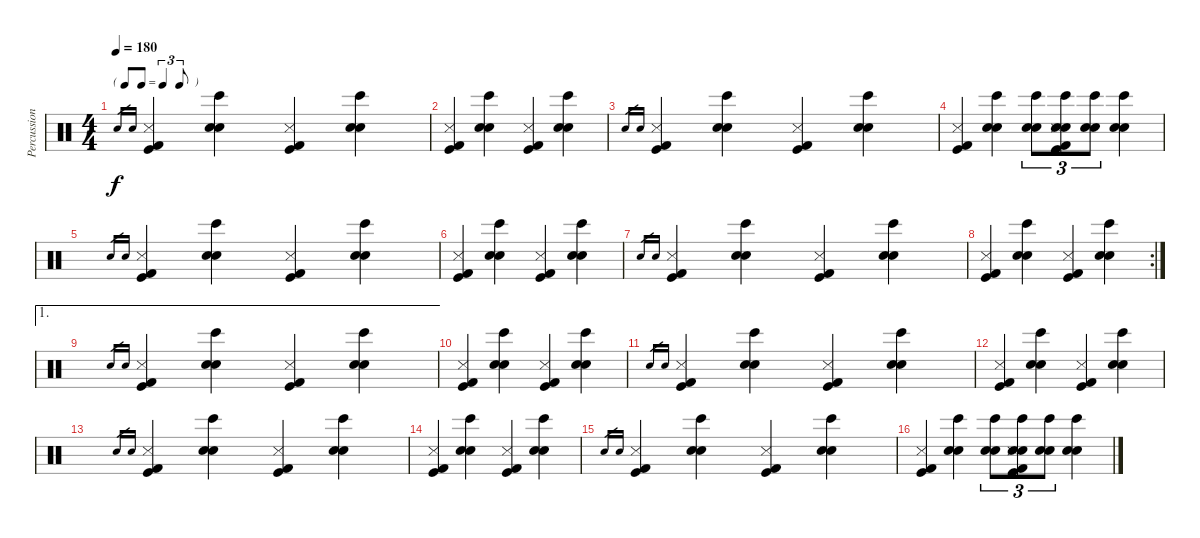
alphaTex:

\track ("Percussion" "Percussion") {instrument percussion}
\staff {score}
\articulation defaults
\ts (4 4)
\tf triplet8th
\tempo 180
\clef neutral
\ks c "Electric Snare (hit)".16{gr dy f} "Snare (hit) 2".16{gr}
("Snare (side stick) 3" "Kick (hit)" "Kick (hit) 2").4 ("Bongo High (hit)" "Electric Snare (hit)" "Snare (hit) 2").4 ("Snare (side stick) 3" "Kick (hit)" "Kick (hit) 2").4 ("Bongo High (hit)" "Electric Snare (hit)" "Snare (hit) 2").4 |
("Snare (side stick) 3" "Kick (hit)" "Kick (hit) 2").4 ("Bongo High (hit)" "Electric Snare (hit)" "Snare (hit) 2").4 ("Snare (side stick) 3" "Kick (hit)" "Kick (hit) 2").4 ("Bongo High (hit)" "Electric Snare (hit)" "Snare (hit) 2").4 |
"Electric Snare (hit)".16{gr} "Snare (hit) 2".16{gr} ("Snare (side stick) 3" "Kick (hit)" "Kick (hit) 2").4 ("Bongo High (hit)" "Electric Snare (hit)" "Snare (hit) 2").4 ("Snare (side stick) 3" "Kick (hit)" "Kick (hit) 2").4 ("Bongo High (hit)" "Electric Snare (hit)" "Snare (hit) 2").4 |
("Snare (side stick) 3" "Kick (hit)" "Kick (hit) 2").4 ("Bongo High (hit)" "Electric Snare (hit)" "Snare (hit) 2").4 ("Bongo High (hit)" "Electric Snare (hit)" "Snare (hit) 2").8{tu (3 2)} ("Bongo High (hit)" "Electric Snare (hit)" "Snare (hit) 2" "Snare (side stick) 3" "Kick (hit)" "Kick (hit) 2").8{tu (3 2)} ("Bongo High (hit)" "Electric Snare (hit)" "Snare (hit) 2").8{tu (3 2)} ("Bongo High (hit)" "Electric Snare (hit)" "Snare (hit) 2").4 |
"Electric Snare (hit)".16{gr} "Snare (hit) 2".16{gr} ("Snare (side stick) 3" "Kick (hit)" "Kick (hit) 2").4 ("Bongo High (hit)" "Electric Snare (hit)" "Snare (hit) 2").4 ("Snare (side stick) 3" "Kick (hit)" "Kick (hit) 2").4 ("Bongo High (hit)" "Electric Snare (hit)" "Snare (hit) 2").4 |
("Snare (side stick) 3" "Kick (hit)" "Kick (hit) 2").4 ("Bongo High (hit)" "Electric Snare (hit)" "Snare (hit) 2").4 ("Snare (side stick) 3" "Kick (hit)" "Kick (hit) 2").4 ("Bongo High (hit)" "Electric Snare (hit)" "Snare (hit) 2").4 |
"Electric Snare (hit)".16{gr} "Snare (hit) 2".16{gr} ("Snare (side stick) 3" "Kick (hit)" "Kick (hit) 2").4 ("Bongo High (hit)" "Electric Snare (hit)" "Snare (hit) 2").4 ("Snare (side stick) 3" "Kick (hit)" "Kick (hit) 2").4 ("Bongo High (hit)" "Electric Snare (hit)" "Snare (hit) 2").4 |
\rc 2
("Snare (side stick) 3" "Kick (hit)" "Kick (hit) 2").4 ("Bongo High (hit)" "Electric Snare (hit)" "Snare (hit) 2").4 ("Snare (side stick) 3" "Kick (hit)" "Kick (hit) 2").4 ("Bongo High (hit)" "Electric Snare (hit)" "Snare (hit) 2").4 |
\ae 1 "Electric Snare (hit)".16{gr} "Snare (hit) 2".16{gr}
("Snare (side stick) 3" "Kick (hit)" "Kick (hit) 2").4 ("Bongo High (hit)" "Electric Snare (hit)" "Snare (hit) 2").4 ("Snare (side stick) 3" "Kick (hit)" "Kick (hit) 2").4 ("Bongo High (hit)" "Electric Snare (hit)" "Snare (hit) 2").4 |
("Snare (side stick) 3" "Kick (hit)" "Kick (hit) 2").4 ("Bongo High (hit)" "Electric Snare (hit)" "Snare (hit) 2").4 ("Snare (side stick) 3" "Kick (hit)" "Kick (hit) 2").4 ("Bongo High (hit)" "Electric Snare (hit)" "Snare (hit) 2").4 |
"Electric Snare (hit)".16{gr} "Snare (hit) 2".16{gr} ("Snare (side stick) 3" "Kick (hit)" "Kick (hit) 2").4 ("Bongo High (hit)" "Electric Snare (hit)" "Snare (hit) 2").4 ("Snare (side stick) 3" "Kick (hit)" "Kick (hit) 2").4 ("Bongo High (hit)" "Electric Snare (hit)" "Snare (hit) 2").4 |
("Snare (side stick) 3" "Kick (hit)" "Kick (hit) 2").4 ("Bongo High (hit)" "Electric Snare (hit)" "Snare (hit) 2").4 ("Snare (side stick) 3" "Kick (hit)" "Kick (hit) 2").4 ("Bongo High (hit)" "Electric Snare (hit)" "Snare (hit) 2").4 |
"Electric Snare (hit)".16{gr} "Snare (hit) 2".16{gr} ("Snare (side stick) 3" "Kick (hit)" "Kick (hit) 2").4 ("Bongo High (hit)" "Electric Snare (hit)" "Snare (hit) 2").4 ("Snare (side stick) 3" "Kick (hit)" "Kick (hit) 2").4 ("Bongo High (hit)" "Electric Snare (hit)" "Snare (hit) 2").4 |
("Snare (side stick) 3" "Kick (hit)" "Kick (hit) 2").4 ("Bongo High (hit)" "Electric Snare (hit)" "Snare (hit) 2").4 ("Snare (side stick) 3" "Kick (hit)" "Kick (hit) 2").4 ("Bongo High (hit)" "Electric Snare (hit)" "Snare (hit) 2").4 |
"Electric Snare (hit)".16{gr} "Snare (hit) 2".16{gr} ("Snare (side stick) 3" "Kick (hit)" "Kick (hit) 2").4 ("Bongo High (hit)" "Electric Snare (hit)" "Snare (hit) 2").4 ("Snare (side stick) 3" "Kick (hit)" "Kick (hit) 2").4 ("Bongo High (hit)" "Electric Snare (hit)" "Snare (hit) 2").4 |
("Snare (side stick) 3" "Kick (hit)" "Kick (hit) 2").4 ("Bongo High (hit)" "Electric Snare (hit)" "Snare (hit) 2").4 ("Bongo High (hit)" "Electric Snare (hit)" "Snare (hit) 2").8{tu (3 2)} ("Bongo High (hit)" "Electric Snare (hit)" "Snare (hit) 2" "Snare (side stick) 3" "Kick (hit)" "Kick (hit) 2").8{tu (3 2)} ("Bongo High (hit)" "Electric Snare (hit)" "Snare (hit) 2").8{tu (3 2)} ("Bongo High (hit)" "Electric Snare (hit)" "Snare (hit) 2").4
